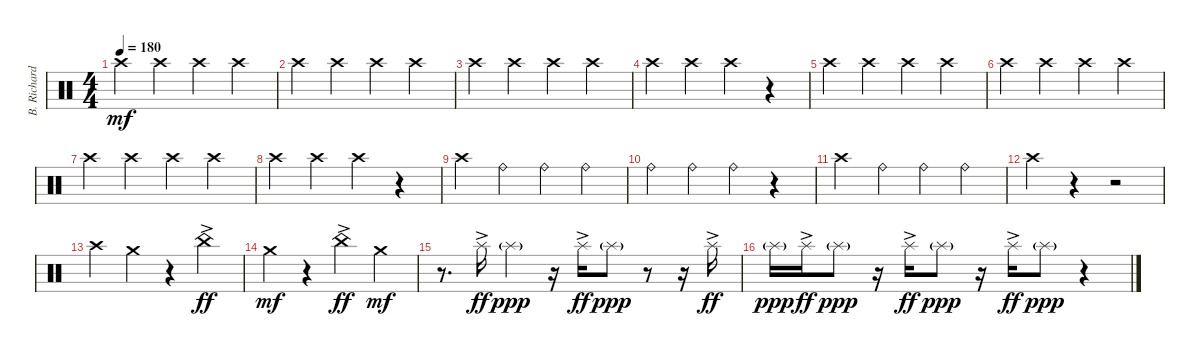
\track ("B. Richardson Drums" "B. Richard") {instrument percussion}
\staff {score}
\articulation defaults
\ts (4 4)
\tempo 180
\clef neutral
\ks c "Crash high (hit)".4{dy mf} "Crash high (hit)".4 "Crash high (hit)".4 "Crash high (hit)".4
|
"Crash high (hit)".4 "Crash high (hit)".4 "Crash high (hit)".4 "Crash high (hit)".4 |
"Crash high (hit)".4 "Crash high (hit)".4 "Crash high (hit)".4 "Crash high (hit)".4 |
"Crash high (hit)".4 "Crash high (hit)".4 "Crash high (hit)".4 r.4 |
"Crash high (hit)".4 "Crash high (hit)".4 "Crash high (hit)".4 "Crash high (hit)".4 |
"Crash high (hit)".4 "Crash high (hit)".4 "Crash high (hit)".4 "Crash high (hit)".4 |
"Crash high (hit)".4 "Crash high (hit)".4 "Crash high (hit)".4 "Crash high (hit)".4 |
"Crash high (hit)".4 "Crash high (hit)".4 "Crash high (hit)".4 r.4 |
"Crash high (hit)".4 "Ride (bell)".4 "Ride (bell)".4 "Ride (bell)".4 |
"Ride (bell)".4 "Ride (bell)".4 "Ride (bell)".4 r.4 |
"Crash high (hit)".4 "Ride (bell)".4 "Ride (bell)".4 "Ride (bell)".4 |
"Crash high (hit)".4 r.4 r.2 |
"Crash high (hit)".4 "Crash medium (hit)".4 r.4 "China (hit)"{ac}.4{dy ff} |
"Crash medium (hit)".4{dy mf} r.4 "China (hit)"{ac}.4{dy ff} "Crash medium (hit)".4{dy mf} |
r.8{d} "Splash (hit)"{ac}.16{dy ff} "Splash (hit)"{g}.4{dy ppp} r.16 "Splash (hit)"{ac}.16{dy ff} "Splash (hit)"{g}.8{dy ppp} r.8 r.16 "Splash (hit)"{ac}.16{dy ff} |
"Splash (hit)"{g}.16{dy ppp} "Splash (hit)"{ac}.16{dy ff} "Splash (hit)"{g}.8{dy ppp} r.16 "Splash (hit)"{ac}.16{dy ff} "Splash (hit)"{g}.8{dy ppp} r.16 "Splash (hit)"{ac}.16{dy ff} "Splash (hit)"{g}.8{dy ppp} r.4
